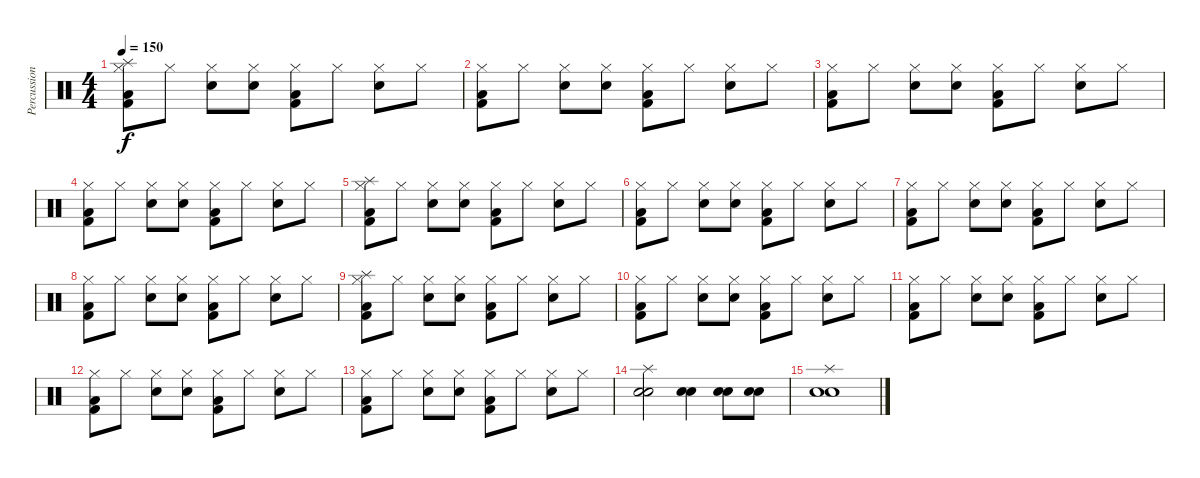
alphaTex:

\track ("Percussions" "Percussion") {instrument percussion}
\staff {score}
\articulation defaults
\ts (4 4)
\tempo 150
\clef neutral
\ks c
("Splash (hit)" "Low Floor Tom (hit)" "Kick (hit) 2" "Hi-Hat (closed)").8{dy f} "Hi-Hat (closed)".8 ("Electric Snare (hit)" "Hi-Hat (closed)").8 ("Electric Snare (hit)" "Hi-Hat (closed)").8 ("Low Floor Tom (hit)" "Kick (hit) 2" "Hi-Hat (closed)").8 "Hi-Hat (closed)".8 ("Electric Snare (hit)" "Hi-Hat (closed)").8 "Hi-Hat (closed)".8 |
("Low Floor Tom (hit)" "Kick (hit) 2" "Hi-Hat (closed)").8 "Hi-Hat (closed)".8 ("Electric Snare (hit)" "Hi-Hat (closed)").8 ("Electric Snare (hit)" "Hi-Hat (closed)").8 ("Low Floor Tom (hit)" "Kick (hit) 2" "Hi-Hat (closed)").8 "Hi-Hat (closed)".8 ("Electric Snare (hit)" "Hi-Hat (closed)").8 "Hi-Hat (closed)".8 |
("Low Floor Tom (hit)" "Kick (hit) 2" "Hi-Hat (closed)").8 "Hi-Hat (closed)".8 ("Electric Snare (hit)" "Hi-Hat (closed)").8 ("Electric Snare (hit)" "Hi-Hat (closed)").8 ("Low Floor Tom (hit)" "Kick (hit) 2" "Hi-Hat (closed)").8 "Hi-Hat (closed)".8 ("Electric Snare (hit)" "Hi-Hat (closed)").8 "Hi-Hat (closed)".8 |
("Low Floor Tom (hit)" "Kick (hit) 2" "Hi-Hat (closed)").8 "Hi-Hat (closed)".8 ("Electric Snare (hit)" "Hi-Hat (closed)").8 ("Electric Snare (hit)" "Hi-Hat (closed)").8 ("Low Floor Tom (hit)" "Kick (hit) 2" "Hi-Hat (closed)").8 "Hi-Hat (closed)".8 ("Electric Snare (hit)" "Hi-Hat (closed)").8 "Hi-Hat (closed)".8 |
("Splash (hit)" "Low Floor Tom (hit)" "Kick (hit) 2" "Hi-Hat (closed)").8 "Hi-Hat (closed)".8 ("Electric Snare (hit)" "Hi-Hat (closed)").8 ("Electric Snare (hit)" "Hi-Hat (closed)").8 ("Low Floor Tom (hit)" "Kick (hit) 2" "Hi-Hat (closed)").8 "Hi-Hat (closed)".8 ("Electric Snare (hit)" "Hi-Hat (closed)").8 "Hi-Hat (closed)".8 |
("Low Floor Tom (hit)" "Kick (hit) 2" "Hi-Hat (closed)").8 "Hi-Hat (closed)".8 ("Electric Snare (hit)" "Hi-Hat (closed)").8 ("Electric Snare (hit)" "Hi-Hat (closed)").8 ("Low Floor Tom (hit)" "Kick (hit) 2" "Hi-Hat (closed)").8 "Hi-Hat (closed)".8 ("Electric Snare (hit)" "Hi-Hat (closed)").8 "Hi-Hat (closed)".8 |
("Low Floor Tom (hit)" "Kick (hit) 2" "Hi-Hat (closed)").8 "Hi-Hat (closed)".8 ("Electric Snare (hit)" "Hi-Hat (closed)").8 ("Electric Snare (hit)" "Hi-Hat (closed)").8 ("Low Floor Tom (hit)" "Kick (hit) 2" "Hi-Hat (closed)").8 "Hi-Hat (closed)".8 ("Electric Snare (hit)" "Hi-Hat (closed)").8 "Hi-Hat (closed)".8 |
("Low Floor Tom (hit)" "Kick (hit) 2" "Hi-Hat (closed)").8 "Hi-Hat (closed)".8 ("Electric Snare (hit)" "Hi-Hat (closed)").8 ("Electric Snare (hit)" "Hi-Hat (closed)").8 ("Low Floor Tom (hit)" "Kick (hit) 2" "Hi-Hat (closed)").8 "Hi-Hat (closed)".8 ("Electric Snare (hit)" "Hi-Hat (closed)").8 "Hi-Hat (closed)".8 |
("Splash (hit)" "Low Floor Tom (hit)" "Kick (hit) 2" "Hi-Hat (closed)").8 "Hi-Hat (closed)".8 ("Electric Snare (hit)" "Hi-Hat (closed)").8 ("Electric Snare (hit)" "Hi-Hat (closed)").8 ("Low Floor Tom (hit)" "Kick (hit) 2" "Hi-Hat (closed)").8 "Hi-Hat (closed)".8 ("Electric Snare (hit)" "Hi-Hat (closed)").8 "Hi-Hat (closed)".8 |
("Low Floor Tom (hit)" "Kick (hit) 2" "Hi-Hat (closed)").8 "Hi-Hat (closed)".8 ("Electric Snare (hit)" "Hi-Hat (closed)").8 ("Electric Snare (hit)" "Hi-Hat (closed)").8 ("Low Floor Tom (hit)" "Kick (hit) 2" "Hi-Hat (closed)").8 "Hi-Hat (closed)".8 ("Electric Snare (hit)" "Hi-Hat (closed)").8 "Hi-Hat (closed)".8 |
("Low Floor Tom (hit)" "Kick (hit) 2" "Hi-Hat (closed)").8 "Hi-Hat (closed)".8 ("Electric Snare (hit)" "Hi-Hat (closed)").8 ("Electric Snare (hit)" "Hi-Hat (closed)").8 ("Low Floor Tom (hit)" "Kick (hit) 2" "Hi-Hat (closed)").8 "Hi-Hat (closed)".8 ("Electric Snare (hit)" "Hi-Hat (closed)").8 "Hi-Hat (closed)".8 |
("Low Floor Tom (hit)" "Kick (hit) 2" "Hi-Hat (closed)").8 "Hi-Hat (closed)".8 ("Electric Snare (hit)" "Hi-Hat (closed)").8 ("Electric Snare (hit)" "Hi-Hat (closed)").8 ("Low Floor Tom (hit)" "Kick (hit) 2" "Hi-Hat (closed)").8 "Hi-Hat (closed)".8 ("Electric Snare (hit)" "Hi-Hat (closed)").8 "Hi-Hat (closed)".8 |
("Low Floor Tom (hit)" "Kick (hit) 2" "Hi-Hat (closed)").8 "Hi-Hat (closed)".8 ("Electric Snare (hit)" "Hi-Hat (closed)").8 ("Electric Snare (hit)" "Hi-Hat (closed)").8 ("Low Floor Tom (hit)" "Kick (hit) 2" "Hi-Hat (closed)").8 "Hi-Hat (closed)".8 ("Electric Snare (hit)" "Hi-Hat (closed)").8 "Hi-Hat (closed)".8 |
("Splash (hit)" "Electric Snare (hit)" "Snare (hit) 2").2 ("Electric Snare (hit)" "Snare (hit) 2").4 ("Electric Snare (hit)" "Snare (hit) 2").8 ("Electric Snare (hit)" "Snare (hit) 2").8 |
("Splash (hit)" "Electric Snare (hit)" "Snare (hit) 2").1
